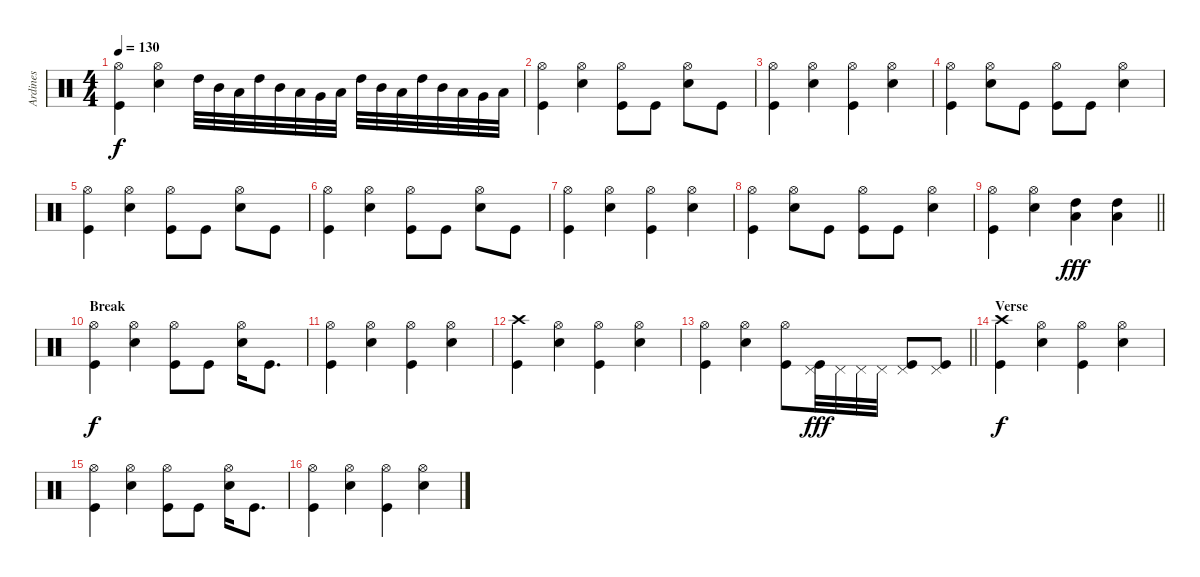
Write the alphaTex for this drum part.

\track ("Ardines" "Ardines") {instrument percussion}
\staff {score}
\articulation defaults
\ts (4 4)
\tempo 130
\clef neutral
\ks c
("Hi-Hat (open)" "Kick (hit)").4{dy f} ("Hi-Hat (open)" "Electric Snare (hit)").4 "High Tom (hit)".32 "Mid Tom (hit)".32 "Low Tom (hit)".32 "High Tom (hit)".32 "Mid Tom (hit)".32 "Low Tom (hit)".32 "Very Low Tom (hit)".32 "Low Tom (hit)".32 "High Tom (hit)".32 "Mid Tom (hit)".32 "Low Tom (hit)".32 "High Tom (hit)".32 "Mid Tom (hit)".32 "Low Tom (hit)".32 "Very Low Tom (hit)".32 "Low Tom (hit)".32 |
("Hi-Hat (open)" "Kick (hit)").4 ("Hi-Hat (open)" "Electric Snare (hit)").4 ("Hi-Hat (open)" "Kick (hit)").8 "Kick (hit)".8 ("Hi-Hat (open)" "Electric Snare (hit)").8 "Kick (hit)".8 |
("Hi-Hat (open)" "Kick (hit)").4 ("Hi-Hat (open)" "Electric Snare (hit)").4 ("Hi-Hat (open)" "Kick (hit)").4 ("Hi-Hat (open)" "Electric Snare (hit)").4 |
("Hi-Hat (open)" "Kick (hit)").4 ("Hi-Hat (open)" "Electric Snare (hit)").8 "Kick (hit)".8 ("Hi-Hat (open)" "Kick (hit)").8 "Kick (hit)".8 ("Hi-Hat (open)" "Electric Snare (hit)").4 |
("Hi-Hat (open)" "Kick (hit)").4 ("Hi-Hat (open)" "Electric Snare (hit)").4 ("Hi-Hat (open)" "Kick (hit)").8 "Kick (hit)".8 ("Hi-Hat (open)" "Electric Snare (hit)").8 "Kick (hit)".8 |
("Hi-Hat (open)" "Kick (hit)").4 ("Hi-Hat (open)" "Electric Snare (hit)").4 ("Hi-Hat (open)" "Kick (hit)").8 "Kick (hit)".8 ("Hi-Hat (open)" "Electric Snare (hit)").8 "Kick (hit)".8 |
("Hi-Hat (open)" "Kick (hit)").4 ("Hi-Hat (open)" "Electric Snare (hit)").4 ("Hi-Hat (open)" "Kick (hit)").4 ("Hi-Hat (open)" "Electric Snare (hit)").4 |
("Hi-Hat (open)" "Kick (hit)").4 ("Hi-Hat (open)" "Electric Snare (hit)").8 "Kick (hit)".8 ("Hi-Hat (open)" "Kick (hit)").8 "Kick (hit)".8 ("Hi-Hat (open)" "Electric Snare (hit)").4 |
\barLineRight lightlight
("Hi-Hat (open)" "Kick (hit)").4 ("Hi-Hat (open)" "Electric Snare (hit)").4 ("High Tom (hit)" "Low Tom (hit)").4{dy fff} ("High Tom (hit)" "Low Tom (hit)").4 |
\section ("" "Break")
("Hi-Hat (open)" "Kick (hit)").4{dy f} ("Hi-Hat (open)" "Electric Snare (hit)").4 ("Hi-Hat (open)" "Kick (hit)").8 "Kick (hit)".8 ("Hi-Hat (open)" "Electric Snare (hit)").16 "Kick (hit)".8{d} |
("Hi-Hat (open)" "Kick (hit)").4 ("Hi-Hat (open)" "Electric Snare (hit)").4 ("Hi-Hat (open)" "Kick (hit)").4 ("Hi-Hat (open)" "Electric Snare (hit)").4 |
("Crash high (hit)" "Kick (hit)").4 ("Hi-Hat (open)" "Electric Snare (hit)").4 ("Hi-Hat (open)" "Kick (hit)").4 ("Hi-Hat (open)" "Electric Snare (hit)").4 |
\barLineRight lightlight
("Hi-Hat (open)" "Kick (hit)").4 ("Hi-Hat (open)" "Electric Snare (hit)").4 ("Hi-Hat (open)" "Kick (hit)").8 ("Pedal Hi-Hat (hit)" "Kick (hit)").32{dy fff} "Pedal Hi-Hat (hit)".32 "Pedal Hi-Hat (hit)".32 "Pedal Hi-Hat (hit)".32 ("Pedal Hi-Hat (hit)" "Kick (hit)").8 ("Pedal Hi-Hat (hit)" "Kick (hit)").8 |
\section ("" "Verse")
("Crash high (hit)" "Kick (hit)").4{dy f} ("Hi-Hat (open)" "Electric Snare (hit)").4 ("Hi-Hat (open)" "Kick (hit)").4 ("Hi-Hat (open)" "Electric Snare (hit)").4 |
("Hi-Hat (open)" "Kick (hit)").4 ("Hi-Hat (open)" "Electric Snare (hit)").4 ("Hi-Hat (open)" "Kick (hit)").8 "Kick (hit)".8 ("Hi-Hat (open)" "Electric Snare (hit)").16 "Kick (hit)".8{d} |
("Hi-Hat (open)" "Kick (hit)").4 ("Hi-Hat (open)" "Electric Snare (hit)").4 ("Hi-Hat (open)" "Kick (hit)").4 ("Hi-Hat (open)" "Electric Snare (hit)").4
